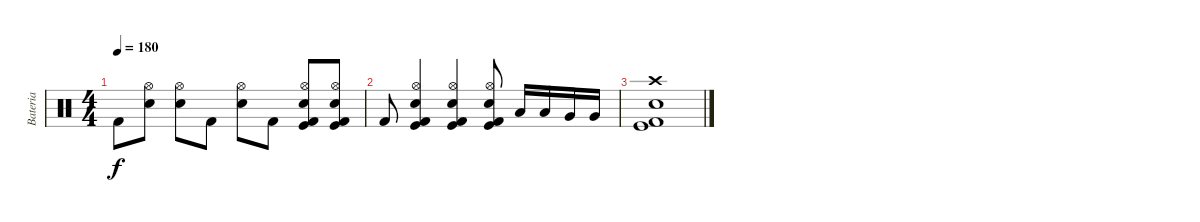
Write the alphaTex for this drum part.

\track ("Bateria" "Bateria") {instrument percussion}
\staff {score}
\articulation defaults
\ts (4 4)
\tempo 180
\clef neutral
\ks c "Kick (hit) 2".8{dy f}
("Hi-Hat (open)" "Snare (hit) 2").8 ("Hi-Hat (open)" "Snare (hit) 2").8 "Kick (hit) 2".8 ("Hi-Hat (open)" "Snare (hit) 2").8 "Kick (hit) 2".8 ("Hi-Hat (open)" "Snare (hit) 2" "Kick (hit)" "Kick (hit) 2").8 ("Hi-Hat (open)" "Snare (hit) 2" "Kick (hit)" "Kick (hit) 2").8 |
"Kick (hit) 2".8 ("Hi-Hat (open)" "Snare (hit) 2" "Kick (hit)" "Kick (hit) 2").4 ("Hi-Hat (open)" "Snare (hit) 2" "Kick (hit)" "Kick (hit) 2").4 ("Hi-Hat (open)" "Snare (hit) 2" "Kick (hit)" "Kick (hit) 2").8 "Low Tom (hit)".16 "Low Tom (hit)".16 "Very Low Tom (hit)".16 "Very Low Tom (hit)".16 |
("Crash high (hit)" "Snare (hit) 2" "Kick (hit)" "Kick (hit) 2").1
